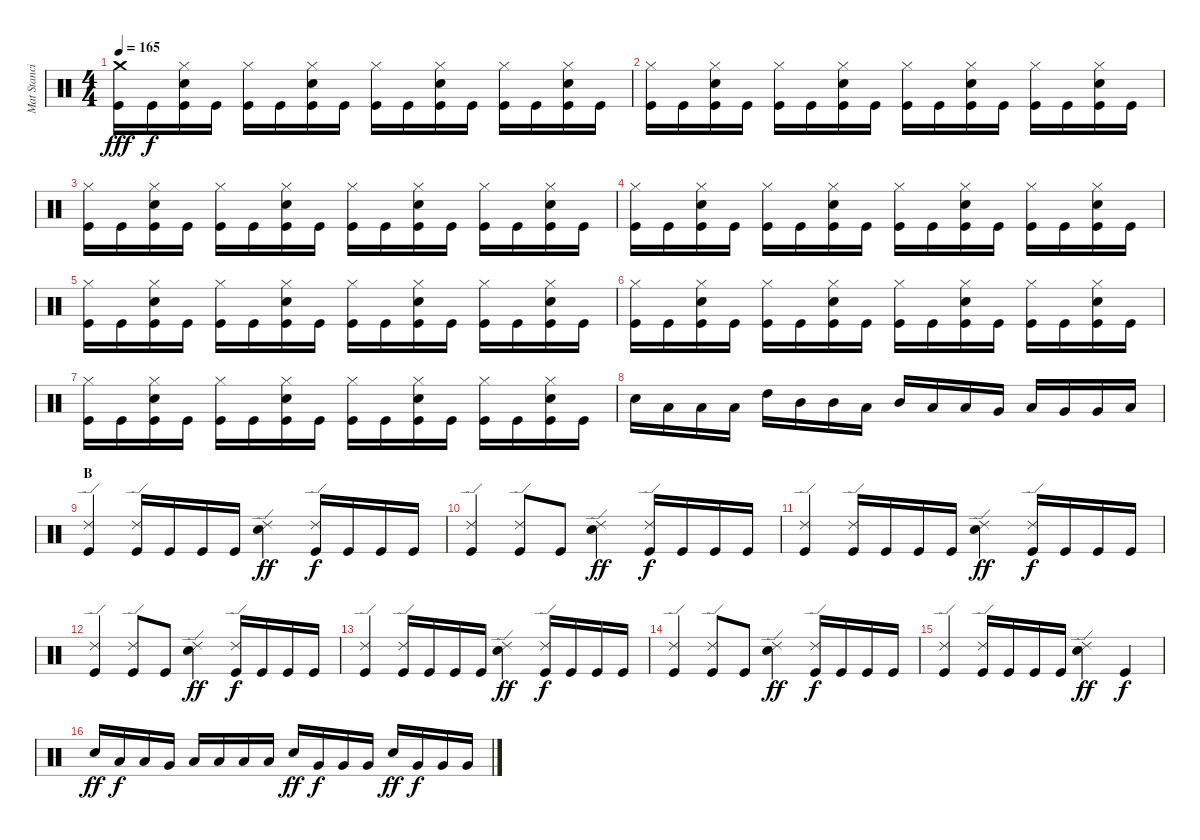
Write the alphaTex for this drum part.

\track ("Mat Stancioiu (Drums)" "Mat Stanci") {instrument percussion}
\staff {score}
\articulation defaults
\ts (4 4)
\tempo 165
\clef neutral
\ks c
("Crash medium (hit)" "Kick (hit)").16{dy fff} "Kick (hit)".16{dy f} ("Hi-Hat (closed)" "Electric Snare (hit)" "Kick (hit)").16 "Kick (hit)".16 ("Hi-Hat (closed)" "Kick (hit)").16 "Kick (hit)".16 ("Hi-Hat (closed)" "Electric Snare (hit)" "Kick (hit)").16 "Kick (hit)".16 ("Hi-Hat (closed)" "Kick (hit)").16 "Kick (hit)".16 ("Hi-Hat (closed)" "Electric Snare (hit)" "Kick (hit)").16 "Kick (hit)".16 ("Hi-Hat (closed)" "Kick (hit)").16 "Kick (hit)".16 ("Hi-Hat (closed)" "Electric Snare (hit)" "Kick (hit)").16 "Kick (hit)".16 |
("Hi-Hat (closed)" "Kick (hit)").16 "Kick (hit)".16 ("Hi-Hat (closed)" "Electric Snare (hit)" "Kick (hit)").16 "Kick (hit)".16 ("Hi-Hat (closed)" "Kick (hit)").16 "Kick (hit)".16 ("Hi-Hat (closed)" "Electric Snare (hit)" "Kick (hit)").16 "Kick (hit)".16 ("Hi-Hat (closed)" "Kick (hit)").16 "Kick (hit)".16 ("Hi-Hat (closed)" "Electric Snare (hit)" "Kick (hit)").16 "Kick (hit)".16 ("Hi-Hat (closed)" "Kick (hit)").16 "Kick (hit)".16 ("Hi-Hat (closed)" "Electric Snare (hit)" "Kick (hit)").16 "Kick (hit)".16 |
("Hi-Hat (closed)" "Kick (hit)").16 "Kick (hit)".16 ("Hi-Hat (closed)" "Electric Snare (hit)" "Kick (hit)").16 "Kick (hit)".16 ("Hi-Hat (closed)" "Kick (hit)").16 "Kick (hit)".16 ("Hi-Hat (closed)" "Electric Snare (hit)" "Kick (hit)").16 "Kick (hit)".16 ("Hi-Hat (closed)" "Kick (hit)").16 "Kick (hit)".16 ("Hi-Hat (closed)" "Electric Snare (hit)" "Kick (hit)").16 "Kick (hit)".16 ("Hi-Hat (closed)" "Kick (hit)").16 "Kick (hit)".16 ("Hi-Hat (closed)" "Electric Snare (hit)" "Kick (hit)").16 "Kick (hit)".16 |
("Hi-Hat (closed)" "Kick (hit)").16 "Kick (hit)".16 ("Hi-Hat (closed)" "Electric Snare (hit)" "Kick (hit)").16 "Kick (hit)".16 ("Hi-Hat (closed)" "Kick (hit)").16 "Kick (hit)".16 ("Hi-Hat (closed)" "Electric Snare (hit)" "Kick (hit)").16 "Kick (hit)".16 ("Hi-Hat (closed)" "Kick (hit)").16 "Kick (hit)".16 ("Hi-Hat (closed)" "Electric Snare (hit)" "Kick (hit)").16 "Kick (hit)".16 ("Hi-Hat (closed)" "Kick (hit)").16 "Kick (hit)".16 ("Hi-Hat (closed)" "Electric Snare (hit)" "Kick (hit)").16 "Kick (hit)".16 |
("Hi-Hat (closed)" "Kick (hit)").16 "Kick (hit)".16 ("Hi-Hat (closed)" "Electric Snare (hit)" "Kick (hit)").16 "Kick (hit)".16 ("Hi-Hat (closed)" "Kick (hit)").16 "Kick (hit)".16 ("Hi-Hat (closed)" "Electric Snare (hit)" "Kick (hit)").16 "Kick (hit)".16 ("Hi-Hat (closed)" "Kick (hit)").16 "Kick (hit)".16 ("Hi-Hat (closed)" "Electric Snare (hit)" "Kick (hit)").16 "Kick (hit)".16 ("Hi-Hat (closed)" "Kick (hit)").16 "Kick (hit)".16 ("Hi-Hat (closed)" "Electric Snare (hit)" "Kick (hit)").16 "Kick (hit)".16 |
("Hi-Hat (closed)" "Kick (hit)").16 "Kick (hit)".16 ("Hi-Hat (closed)" "Electric Snare (hit)" "Kick (hit)").16 "Kick (hit)".16 ("Hi-Hat (closed)" "Kick (hit)").16 "Kick (hit)".16 ("Hi-Hat (closed)" "Electric Snare (hit)" "Kick (hit)").16 "Kick (hit)".16 ("Hi-Hat (closed)" "Kick (hit)").16 "Kick (hit)".16 ("Hi-Hat (closed)" "Electric Snare (hit)" "Kick (hit)").16 "Kick (hit)".16 ("Hi-Hat (closed)" "Kick (hit)").16 "Kick (hit)".16 ("Hi-Hat (closed)" "Electric Snare (hit)" "Kick (hit)").16 "Kick (hit)".16 |
("Hi-Hat (closed)" "Kick (hit)").16 "Kick (hit)".16 ("Hi-Hat (closed)" "Electric Snare (hit)" "Kick (hit)").16 "Kick (hit)".16 ("Hi-Hat (closed)" "Kick (hit)").16 "Kick (hit)".16 ("Hi-Hat (closed)" "Electric Snare (hit)" "Kick (hit)").16 "Kick (hit)".16 ("Hi-Hat (closed)" "Kick (hit)").16 "Kick (hit)".16 ("Hi-Hat (closed)" "Electric Snare (hit)" "Kick (hit)").16 "Kick (hit)".16 ("Hi-Hat (closed)" "Kick (hit)").16 "Kick (hit)".16 ("Hi-Hat (closed)" "Electric Snare (hit)" "Kick (hit)").16 "Kick (hit)".16 |
"Electric Snare (hit)".16 "Low Tom (hit)".16 "Low Tom (hit)".16 "Low Tom (hit)".16 "High Tom (hit)".16 "Mid Tom (hit)".16 "Mid Tom (hit)".16 "Low Tom (hit)".16 "Mid Tom (hit)".16 "Low Tom (hit)".16 "Low Tom (hit)".16 "Very Low Tom (hit)".16 "Low Tom (hit)".16 "Very Low Tom (hit)".16 "Very Low Tom (hit)".16 "Low Floor Tom (hit)".16 |
\section ("" "B")
("Ride (edge) 2" "Kick (hit)").4 ("Ride (edge) 2" "Kick (hit)").16 "Kick (hit)".16 "Kick (hit)".16 "Kick (hit)".16 ("Ride (edge) 2" "Electric Snare (hit)").4{dy ff} ("Ride (edge) 2" "Kick (hit)").16{dy f} "Kick (hit)".16 "Kick (hit)".16 "Kick (hit)".16 |
("Ride (edge) 2" "Kick (hit)").4 ("Ride (edge) 2" "Kick (hit)").8 "Kick (hit)".8 ("Ride (edge) 2" "Electric Snare (hit)").4{dy ff} ("Ride (edge) 2" "Kick (hit)").16{dy f} "Kick (hit)".16 "Kick (hit)".16 "Kick (hit)".16 |
("Ride (edge) 2" "Kick (hit)").4 ("Ride (edge) 2" "Kick (hit)").16 "Kick (hit)".16 "Kick (hit)".16 "Kick (hit)".16 ("Ride (edge) 2" "Electric Snare (hit)").4{dy ff} ("Ride (edge) 2" "Kick (hit)").16{dy f} "Kick (hit)".16 "Kick (hit)".16 "Kick (hit)".16 |
("Ride (edge) 2" "Kick (hit)").4 ("Ride (edge) 2" "Kick (hit)").8 "Kick (hit)".8 ("Ride (edge) 2" "Electric Snare (hit)").4{dy ff} ("Ride (edge) 2" "Kick (hit)").16{dy f} "Kick (hit)".16 "Kick (hit)".16 "Kick (hit)".16 |
("Ride (edge) 2" "Kick (hit)").4 ("Ride (edge) 2" "Kick (hit)").16 "Kick (hit)".16 "Kick (hit)".16 "Kick (hit)".16 ("Ride (edge) 2" "Electric Snare (hit)").4{dy ff} ("Ride (edge) 2" "Kick (hit)").16{dy f} "Kick (hit)".16 "Kick (hit)".16 "Kick (hit)".16 |
("Ride (edge) 2" "Kick (hit)").4 ("Ride (edge) 2" "Kick (hit)").8 "Kick (hit)".8 ("Ride (edge) 2" "Electric Snare (hit)").4{dy ff} ("Ride (edge) 2" "Kick (hit)").16{dy f} "Kick (hit)".16 "Kick (hit)".16 "Kick (hit)".16 |
("Ride (edge) 2" "Kick (hit)").4 ("Ride (edge) 2" "Kick (hit)").16 "Kick (hit)".16 "Kick (hit)".16 "Kick (hit)".16 ("Ride (edge) 2" "Electric Snare (hit)").4{dy ff} "Kick (hit)".4{dy f} |
"Electric Snare (hit)".16{dy ff} "Low Tom (hit)".16{dy f} "Low Tom (hit)".16 "Very Low Tom (hit)".16 "Low Floor Tom (hit)".16 "Low Floor Tom (hit)".16 "Low Floor Tom (hit)".16 "Low Floor Tom (hit)".16 "Electric Snare (hit)".16{dy ff} "Very Low Tom (hit)".16{dy f} "Very Low Tom (hit)".16 "Very Low Tom (hit)".16 "Electric Snare (hit)".16{dy ff} "Very Low Tom (hit)".16{dy f} "Very Low Tom (hit)".16 "Very Low Tom (hit)".16
